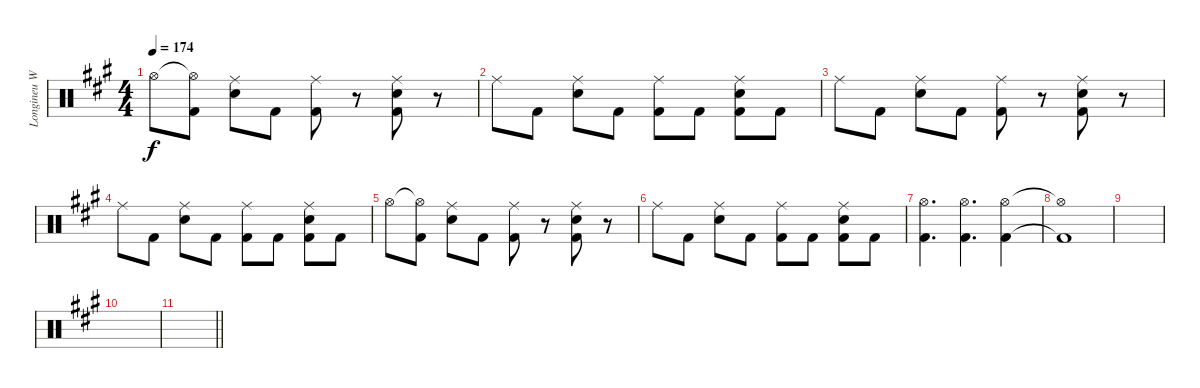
\track ("Longineu W. Parsons III" "Longineu W") {instrument percussion}
\staff {score}
\articulation defaults
\ts (4 4)
\tempo 174
\clef neutral
\ks a "Hi-Hat (open)".8{dy f}
("Hi-Hat (open)"{t} "Kick (hit) 2").8 ("Electric Snare (hit)" "Ride (middle)").8 "Kick (hit) 2".8 ("Ride (middle)" "Kick (hit) 2").8 r.8 ("Electric Snare (hit)" "Ride (middle)" "Kick (hit) 2").8 r.8 |
"Ride (middle)".8 "Kick (hit) 2".8 ("Electric Snare (hit)" "Ride (middle)").8 "Kick (hit) 2".8 ("Ride (middle)" "Kick (hit) 2").8 "Kick (hit) 2".8 ("Electric Snare (hit)" "Ride (middle)" "Kick (hit) 2").8 "Kick (hit) 2".8 |
"Ride (middle)".8 "Kick (hit) 2".8 ("Electric Snare (hit)" "Ride (middle)").8 "Kick (hit) 2".8 ("Ride (middle)" "Kick (hit) 2").8 r.8 ("Electric Snare (hit)" "Ride (middle)" "Kick (hit) 2").8 r.8 |
"Ride (middle)".8 "Kick (hit) 2".8 ("Electric Snare (hit)" "Ride (middle)").8 "Kick (hit) 2".8 ("Ride (middle)" "Kick (hit) 2").8 "Kick (hit) 2".8 ("Electric Snare (hit)" "Ride (middle)" "Kick (hit) 2").8 "Kick (hit) 2".8 |
"Hi-Hat (open)".8 ("Hi-Hat (open)"{t} "Kick (hit) 2").8 ("Electric Snare (hit)" "Ride (middle)").8 "Kick (hit) 2".8 ("Ride (middle)" "Kick (hit) 2").8 r.8 ("Electric Snare (hit)" "Ride (middle)" "Kick (hit) 2").8 r.8 |
"Ride (middle)".8 "Kick (hit) 2".8 ("Electric Snare (hit)" "Ride (middle)").8 "Kick (hit) 2".8 ("Ride (middle)" "Kick (hit) 2").8 "Kick (hit) 2".8 ("Electric Snare (hit)" "Ride (middle)" "Kick (hit) 2").8 "Kick (hit) 2".8 |
("Hi-Hat (open)" "Kick (hit) 2").4{d} ("Hi-Hat (open)" "Kick (hit) 2").4{d} ("Hi-Hat (open)" "Kick (hit) 2").4 |
("Hi-Hat (open)"{t} "Kick (hit) 2"{t}).1 |
|
|
\barLineRight lightlight
